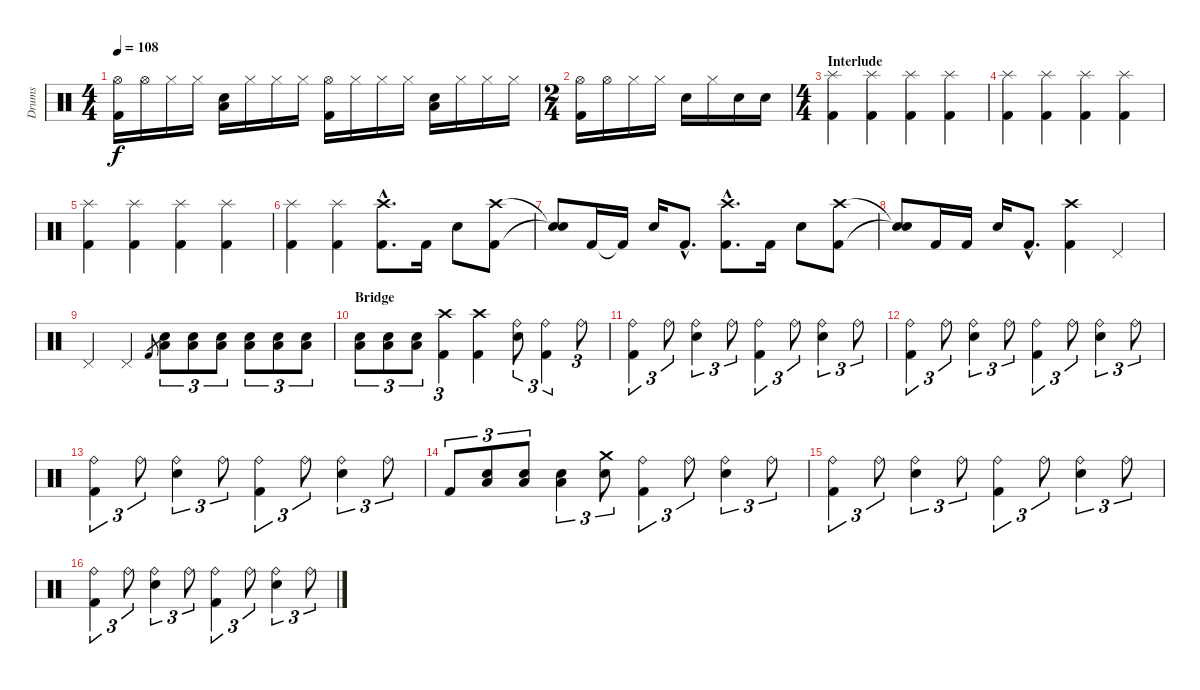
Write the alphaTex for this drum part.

\track ("Drums" "Drums") {instrument percussion}
\staff {score}
\articulation defaults
\ts (4 4)
\tempo 108
\clef neutral
\ks c
("Hi-Hat (open)" "Kick (hit) 2").16{dy f} "Hi-Hat (open)".16 "Hi-Hat (closed)".16 "Hi-Hat (closed)".16 ("Low Floor Tom (hit)" "Electric Snare (hit)").16 "Hi-Hat (closed)".16 "Hi-Hat (closed)".16 "Hi-Hat (closed)".16 ("Hi-Hat (open)" "Kick (hit) 2").16 "Hi-Hat (closed)".16 "Hi-Hat (closed)".16 "Hi-Hat (closed)".16 ("Low Floor Tom (hit)" "Electric Snare (hit)").16 "Hi-Hat (closed)".16 "Hi-Hat (closed)".16 "Hi-Hat (closed)".16 |
\ts (2 4)
("Hi-Hat (open)" "Kick (hit) 2").16 "Hi-Hat (open)".16 "Hi-Hat (closed)".16 "Hi-Hat (closed)".16 "Electric Snare (hit)".16 "Hi-Hat (closed)".16 "Electric Snare (hit)".16 "Electric Snare (hit)".16 |
\ts (4 4)
\section ("" "Interlude")
("Splash (hit)" "Kick (hit) 2").4 ("Splash (hit)" "Kick (hit) 2").4 ("Splash (hit)" "Kick (hit) 2").4 ("Splash (hit)" "Kick (hit) 2").4 |
("Splash (hit)" "Kick (hit) 2").4 ("Splash (hit)" "Kick (hit) 2").4 ("Splash (hit)" "Kick (hit) 2").4 ("Splash (hit)" "Kick (hit) 2").4 |
("Splash (hit)" "Kick (hit) 2").4 ("Splash (hit)" "Kick (hit) 2").4 ("Splash (hit)" "Kick (hit) 2").4 ("Splash (hit)" "Kick (hit) 2").4 |
("Splash (hit)" "Kick (hit) 2").4 ("Splash (hit)" "Kick (hit) 2").4 ("Crash high (hit)"{hac} "Kick (hit) 2"{hac}).8{d} "Kick (hit) 2".16 "Electric Snare (hit)".8 ("Crash high (hit)" "Kick (hit) 2").8 |
("Snare (hit)"{t} "Snare (hit)"{t}).8 "Kick (hit) 2".16 "Kick (hit) 2"{t}.16 "Electric Snare (hit)".16 "Kick (hit) 2"{hac}.8{d} ("Crash high (hit)"{hac} "Kick (hit) 2"{hac}).8{d} "Kick (hit) 2".16 "Electric Snare (hit)".8 ("Crash high (hit)" "Kick (hit) 2").8 |
("Snare (hit)"{t} "Snare (hit)"{t}).8 "Kick (hit) 2".16 "Kick (hit) 2".16 "Electric Snare (hit)".16 "Kick (hit) 2"{hac}.8{d} ("Crash high (hit)" "Kick (hit) 2").4 "Pedal Hi-Hat (hit)".4 |
"Pedal Hi-Hat (hit)".4 "Pedal Hi-Hat (hit)".4 "Kick (hit) 2".8{gr} ("Low Floor Tom (hit)" "Electric Snare (hit)").8{tu (3 2)} ("Low Floor Tom (hit)" "Electric Snare (hit)").8{tu (3 2)} ("Low Floor Tom (hit)" "Electric Snare (hit)").8{tu (3 2)} ("Low Floor Tom (hit)" "Electric Snare (hit)").8{tu (3 2)} ("Low Floor Tom (hit)" "Electric Snare (hit)").8{tu (3 2)} ("Low Floor Tom (hit)" "Electric Snare (hit)").8{tu (3 2)} |
\section ("" "Bridge")
("Low Floor Tom (hit)" "Electric Snare (hit)").8{tu (3 2)} ("Low Floor Tom (hit)" "Electric Snare (hit)").8{tu (3 2)} ("Low Floor Tom (hit)" "Electric Snare (hit)").8{tu (3 2)} ("Crash high (hit)" "Kick (hit) 2").4{tu (3 2)} ("Crash high (hit)" "Kick (hit) 2").4 ("Ride (bell)" "Electric Snare (hit)").8{tu (3 2)} ("Ride (bell)" "Kick (hit) 2").4{tu (3 2)} "Ride (bell)".8{tu (3 2)} |
("Ride (bell)" "Kick (hit) 2").4{tu (3 2)} "Ride (bell)".8{tu (3 2)} ("Ride (bell)" "Electric Snare (hit)").4{tu (3 2)} "Ride (bell)".8{tu (3 2)} ("Ride (bell)" "Kick (hit) 2").4{tu (3 2)} "Ride (bell)".8{tu (3 2)} ("Ride (bell)" "Electric Snare (hit)").4{tu (3 2)} "Ride (bell)".8{tu (3 2)} |
("Ride (bell)" "Kick (hit) 2").4{tu (3 2)} "Ride (bell)".8{tu (3 2)} ("Ride (bell)" "Electric Snare (hit)").4{tu (3 2)} "Ride (bell)".8{tu (3 2)} ("Ride (bell)" "Kick (hit) 2").4{tu (3 2)} "Ride (bell)".8{tu (3 2)} ("Ride (bell)" "Electric Snare (hit)").4{tu (3 2)} "Ride (bell)".8{tu (3 2)} |
("Ride (bell)" "Kick (hit) 2").4{tu (3 2)} "Ride (bell)".8{tu (3 2)} ("Ride (bell)" "Electric Snare (hit)").4{tu (3 2)} "Ride (bell)".8{tu (3 2)} ("Ride (bell)" "Kick (hit) 2").4{tu (3 2)} "Ride (bell)".8{tu (3 2)} ("Ride (bell)" "Electric Snare (hit)").4{tu (3 2)} "Ride (bell)".8{tu (3 2)} |
"Kick (hit) 2".8{tu (3 2)} ("Low Floor Tom (hit)" "Electric Snare (hit)").8{tu (3 2)} ("Low Floor Tom (hit)" "Electric Snare (hit)").8{tu (3 2)} ("Low Floor Tom (hit)" "Electric Snare (hit)").4{tu (3 2)} ("Crash medium (hit)" "Electric Snare (hit)").8{tu (3 2)} ("Ride (bell)" "Kick (hit) 2").4{tu (3 2)} "Ride (bell)".8{tu (3 2)} ("Ride (bell)" "Electric Snare (hit)").4{tu (3 2)} "Ride (bell)".8{tu (3 2)} |
("Ride (bell)" "Kick (hit) 2").4{tu (3 2)} "Ride (bell)".8{tu (3 2)} ("Ride (bell)" "Electric Snare (hit)").4{tu (3 2)} "Ride (bell)".8{tu (3 2)} ("Ride (bell)" "Kick (hit) 2").4{tu (3 2)} "Ride (bell)".8{tu (3 2)} ("Ride (bell)" "Electric Snare (hit)").4{tu (3 2)} "Ride (bell)".8{tu (3 2)} |
("Ride (bell)" "Kick (hit) 2").4{tu (3 2)} "Ride (bell)".8{tu (3 2)} ("Ride (bell)" "Electric Snare (hit)").4{tu (3 2)} "Ride (bell)".8{tu (3 2)} ("Ride (bell)" "Kick (hit) 2").4{tu (3 2)} "Ride (bell)".8{tu (3 2)} ("Ride (bell)" "Electric Snare (hit)").4{tu (3 2)} "Ride (bell)".8{tu (3 2)}
